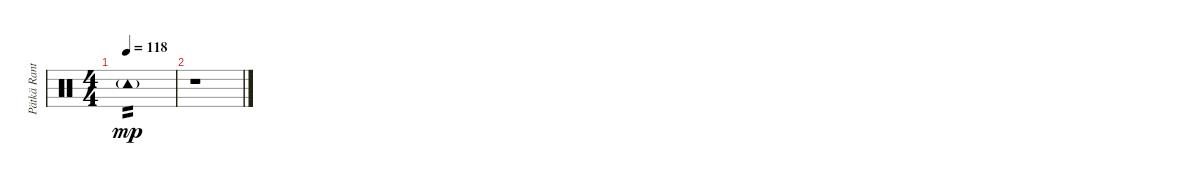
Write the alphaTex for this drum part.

\track ("Pätkä Rantala (Drums)" "Pätkä Rant") {instrument percussion}
\staff {score}
\articulation defaults
\ts (4 4)
\tempo 118
\clef neutral
\ks c "Tambourine (hit)"{g}.1{tp 2 dy mp}
|
r.1
